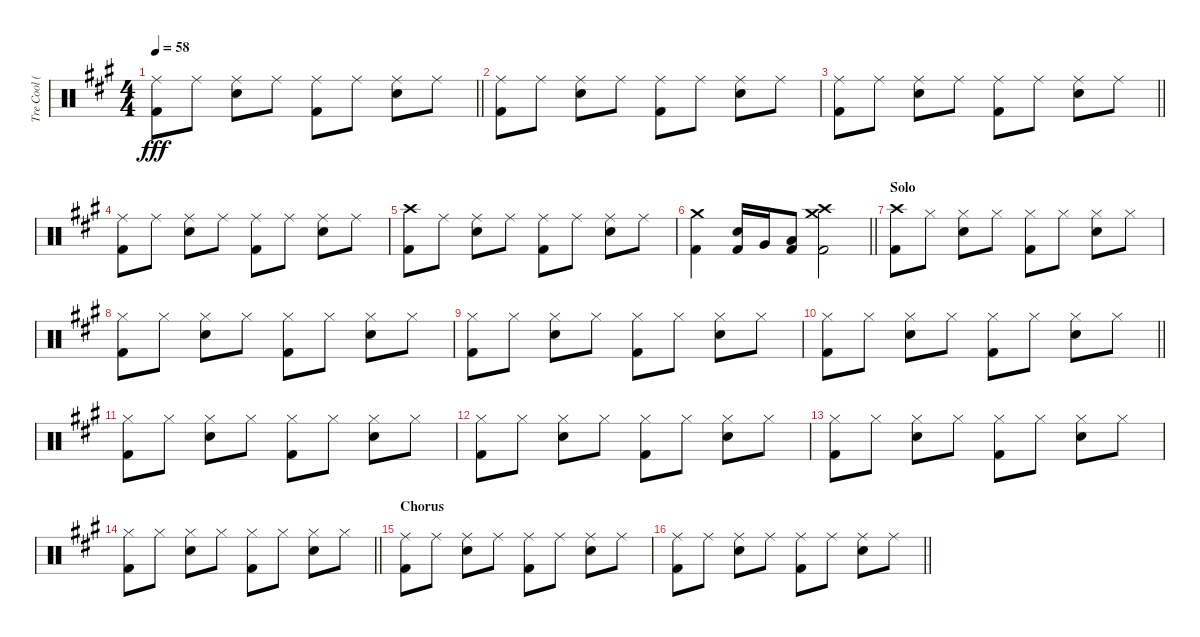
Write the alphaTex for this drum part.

\track ("Tre Cool (Drums)" "Tre Cool (") {instrument percussion}
\staff {score}
\articulation defaults
\ts (4 4)
\tempo 58
\clef neutral
\barLineRight lightlight
\ks a
("Ride (middle)" "Kick (hit) 2").8{dy fff} "Ride (middle)".8 ("Ride (middle)" "Electric Snare (hit)").8 "Ride (middle)".8 ("Ride (middle)" "Kick (hit) 2").8 "Ride (middle)".8 ("Ride (middle)" "Electric Snare (hit)").8 "Ride (middle)".8 |
("Ride (middle)" "Kick (hit) 2").8 "Ride (middle)".8 ("Ride (middle)" "Electric Snare (hit)").8 "Ride (middle)".8 ("Ride (middle)" "Kick (hit) 2").8 "Ride (middle)".8 ("Ride (middle)" "Electric Snare (hit)").8 "Ride (middle)".8 |
\barLineRight lightlight
("Ride (middle)" "Kick (hit) 2").8 "Ride (middle)".8 ("Ride (middle)" "Electric Snare (hit)").8 "Ride (middle)".8 ("Ride (middle)" "Kick (hit) 2").8 "Ride (middle)".8 ("Ride (middle)" "Electric Snare (hit)").8 "Ride (middle)".8 |
("Ride (middle)" "Kick (hit) 2").8 "Ride (middle)".8 ("Ride (middle)" "Electric Snare (hit)").8 "Ride (middle)".8 ("Ride (middle)" "Kick (hit) 2").8 "Ride (middle)".8 ("Ride (middle)" "Electric Snare (hit)").8 "Ride (middle)".8 |
("Crash high (hit)" "Kick (hit) 2").8 "Ride (middle)".8 ("Ride (middle)" "Electric Snare (hit)").8 "Ride (middle)".8 ("Ride (middle)" "Kick (hit) 2").8 "Ride (middle)".8 ("Ride (middle)" "Electric Snare (hit)").8 "Ride (middle)".8 |
\barLineRight lightlight
("Crash medium (hit)" "Kick (hit) 2").4 ("Electric Snare (hit)" "Kick (hit) 2").16 "Very Low Tom (hit)".16 ("Low Tom (hit)" "Kick (hit) 2").8 ("Crash high (hit)" "Crash medium (hit)" "Kick (hit) 2").2 |
\section ("" "Solo")
("Crash high (hit)" "Kick (hit) 2").8 "Hi-Hat (closed)".8 ("Hi-Hat (closed)" "Electric Snare (hit)").8 "Hi-Hat (closed)".8 ("Hi-Hat (closed)" "Kick (hit) 2").8 "Hi-Hat (closed)".8 ("Hi-Hat (closed)" "Electric Snare (hit)").8 "Hi-Hat (closed)".8 |
("Hi-Hat (closed)" "Kick (hit) 2").8 "Hi-Hat (closed)".8 ("Hi-Hat (closed)" "Electric Snare (hit)").8 "Hi-Hat (closed)".8 ("Hi-Hat (closed)" "Kick (hit) 2").8 "Hi-Hat (closed)".8 ("Hi-Hat (closed)" "Electric Snare (hit)").8 "Hi-Hat (closed)".8 |
("Hi-Hat (closed)" "Kick (hit) 2").8 "Hi-Hat (closed)".8 ("Hi-Hat (closed)" "Electric Snare (hit)").8 "Hi-Hat (closed)".8 ("Hi-Hat (closed)" "Kick (hit) 2").8 "Hi-Hat (closed)".8 ("Hi-Hat (closed)" "Electric Snare (hit)").8 "Hi-Hat (closed)".8 |
\barLineRight lightlight
("Hi-Hat (closed)" "Kick (hit) 2").8 "Hi-Hat (closed)".8 ("Hi-Hat (closed)" "Electric Snare (hit)").8 "Hi-Hat (closed)".8 ("Hi-Hat (closed)" "Kick (hit) 2").8 "Hi-Hat (closed)".8 ("Hi-Hat (closed)" "Electric Snare (hit)").8 "Hi-Hat (closed)".8 |
("Hi-Hat (closed)" "Kick (hit) 2").8 "Hi-Hat (closed)".8 ("Hi-Hat (closed)" "Electric Snare (hit)").8 "Hi-Hat (closed)".8 ("Hi-Hat (closed)" "Kick (hit) 2").8 "Hi-Hat (closed)".8 ("Hi-Hat (closed)" "Electric Snare (hit)").8 "Hi-Hat (closed)".8 |
("Hi-Hat (closed)" "Kick (hit) 2").8 "Hi-Hat (closed)".8 ("Hi-Hat (closed)" "Electric Snare (hit)").8 "Hi-Hat (closed)".8 ("Hi-Hat (closed)" "Kick (hit) 2").8 "Hi-Hat (closed)".8 ("Hi-Hat (closed)" "Electric Snare (hit)").8 "Hi-Hat (closed)".8 |
("Hi-Hat (closed)" "Kick (hit) 2").8 "Hi-Hat (closed)".8 ("Hi-Hat (closed)" "Electric Snare (hit)").8 "Hi-Hat (closed)".8 ("Hi-Hat (closed)" "Kick (hit) 2").8 "Hi-Hat (closed)".8 ("Hi-Hat (closed)" "Electric Snare (hit)").8 "Hi-Hat (closed)".8 |
\barLineRight lightlight
("Hi-Hat (closed)" "Kick (hit) 2").8 "Hi-Hat (closed)".8 ("Hi-Hat (closed)" "Electric Snare (hit)").8 "Hi-Hat (closed)".8 ("Hi-Hat (closed)" "Kick (hit) 2").8 "Hi-Hat (closed)".8 ("Hi-Hat (closed)" "Electric Snare (hit)").8 "Hi-Hat (closed)".8 |
\section ("" "Chorus")
("Ride (middle)" "Kick (hit) 2").8 "Ride (middle)".8 ("Ride (middle)" "Electric Snare (hit)").8 "Ride (middle)".8 ("Ride (middle)" "Kick (hit) 2").8 "Ride (middle)".8 ("Ride (middle)" "Electric Snare (hit)").8 "Ride (middle)".8 |
\barLineRight lightlight
("Ride (middle)" "Kick (hit) 2").8 "Ride (middle)".8 ("Ride (middle)" "Electric Snare (hit)").8 "Ride (middle)".8 ("Ride (middle)" "Kick (hit) 2").8 "Ride (middle)".8 ("Ride (middle)" "Electric Snare (hit)").8 "Ride (middle)".8
